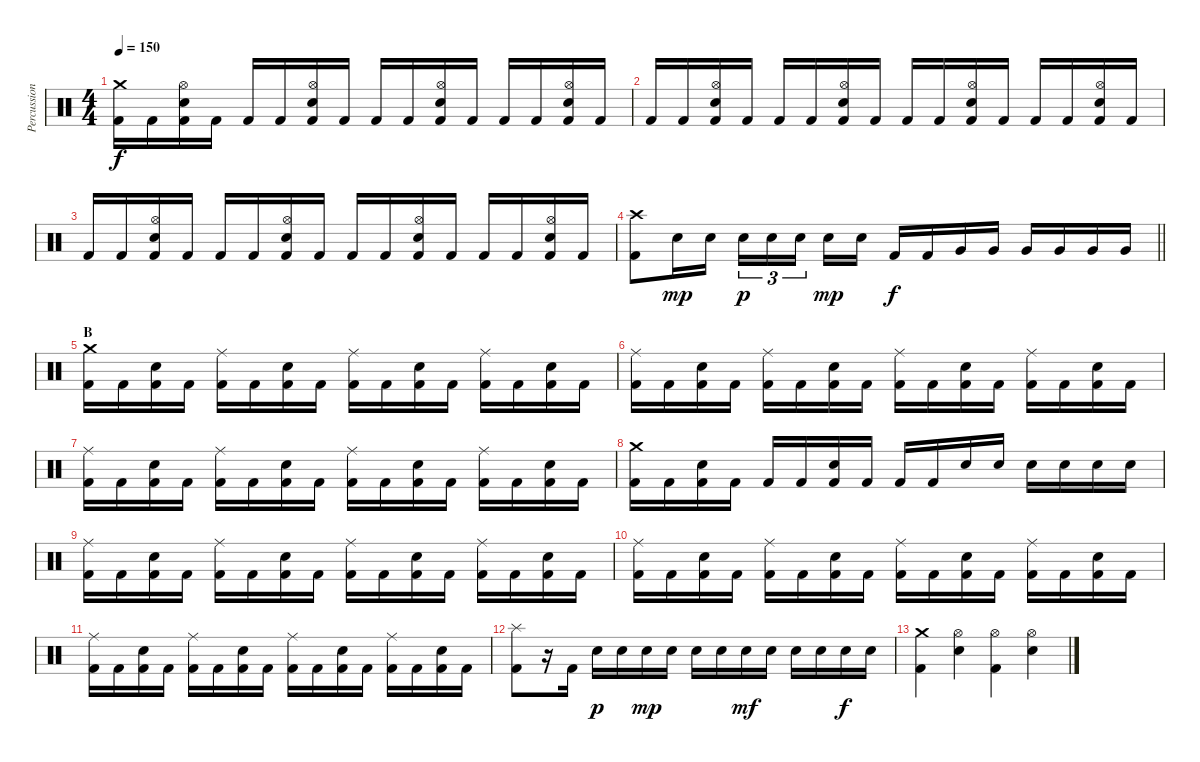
\track ("Percussion" "Percussion") {instrument percussion bank 6}
\staff {score}
\articulation defaults
\ts (4 4)
\tempo 150
\clef neutral
\ks c
("Crash medium (hit)" "Kick (hit) 2").16{dy f} "Kick (hit) 2".16 ("Hi-Hat (open)" "Electric Snare (hit)" "Kick (hit) 2").16 "Kick (hit) 2".16 "Kick (hit) 2".16 "Kick (hit) 2".16 ("Hi-Hat (open)" "Electric Snare (hit)" "Kick (hit) 2").16 "Kick (hit) 2".16 "Kick (hit) 2".16 "Kick (hit) 2".16 ("Hi-Hat (open)" "Electric Snare (hit)" "Kick (hit) 2").16 "Kick (hit) 2".16 "Kick (hit) 2".16 "Kick (hit) 2".16 ("Hi-Hat (open)" "Electric Snare (hit)" "Kick (hit) 2").16 "Kick (hit) 2".16 |
"Kick (hit) 2".16 "Kick (hit) 2".16 ("Hi-Hat (open)" "Electric Snare (hit)" "Kick (hit) 2").16 "Kick (hit) 2".16 "Kick (hit) 2".16 "Kick (hit) 2".16 ("Hi-Hat (open)" "Electric Snare (hit)" "Kick (hit) 2").16 "Kick (hit) 2".16 "Kick (hit) 2".16 "Kick (hit) 2".16 ("Hi-Hat (open)" "Electric Snare (hit)" "Kick (hit) 2").16 "Kick (hit) 2".16 "Kick (hit) 2".16 "Kick (hit) 2".16 ("Hi-Hat (open)" "Electric Snare (hit)" "Kick (hit) 2").16 "Kick (hit) 2".16 |
"Kick (hit) 2".16 "Kick (hit) 2".16 ("Hi-Hat (open)" "Electric Snare (hit)" "Kick (hit) 2").16 "Kick (hit) 2".16 "Kick (hit) 2".16 "Kick (hit) 2".16 ("Hi-Hat (open)" "Electric Snare (hit)" "Kick (hit) 2").16 "Kick (hit) 2".16 "Kick (hit) 2".16 "Kick (hit) 2".16 ("Hi-Hat (open)" "Electric Snare (hit)" "Kick (hit) 2").16 "Kick (hit) 2".16 "Kick (hit) 2".16 "Kick (hit) 2".16 ("Hi-Hat (open)" "Electric Snare (hit)" "Kick (hit) 2").16 "Kick (hit) 2".16 |
\barLineRight lightlight
("Crash high (hit)" "Kick (hit) 2").8 "Electric Snare (hit)".16{dy mp} "Electric Snare (hit)".16 "Electric Snare (hit)".16{tu (3 2) dy p} "Electric Snare (hit)".16{tu (3 2)} "Electric Snare (hit)".16{tu (3 2) beam splitsecondary} "Electric Snare (hit)".16{dy mp} "Electric Snare (hit)".16 "Kick (hit) 2".16{dy f} "Kick (hit) 2".16 "Very Low Tom (hit)".16 "Very Low Tom (hit)".16 "Very Low Tom (hit)".16 "Very Low Tom (hit)".16 "Very Low Tom (hit)".16 "Very Low Tom (hit)".16 |
\section ("" "B")
("Crash medium (hit)" "Kick (hit) 2").16 "Kick (hit) 2".16 ("Electric Snare (hit)" "Kick (hit) 2").16 "Kick (hit) 2".16 ("Ride (middle)" "Kick (hit) 2").16 "Kick (hit) 2".16 ("Electric Snare (hit)" "Kick (hit) 2").16 "Kick (hit) 2".16 ("Ride (middle)" "Kick (hit) 2").16 "Kick (hit) 2".16 ("Electric Snare (hit)" "Kick (hit) 2").16 "Kick (hit) 2".16 ("Ride (middle)" "Kick (hit) 2").16 "Kick (hit) 2".16 ("Electric Snare (hit)" "Kick (hit) 2").16 "Kick (hit) 2".16 |
("Ride (middle)" "Kick (hit) 2").16 "Kick (hit) 2".16 ("Electric Snare (hit)" "Kick (hit) 2").16 "Kick (hit) 2".16 ("Ride (middle)" "Kick (hit) 2").16 "Kick (hit) 2".16 ("Electric Snare (hit)" "Kick (hit) 2").16 "Kick (hit) 2".16 ("Ride (middle)" "Kick (hit) 2").16 "Kick (hit) 2".16 ("Electric Snare (hit)" "Kick (hit) 2").16 "Kick (hit) 2".16 ("Ride (middle)" "Kick (hit) 2").16 "Kick (hit) 2".16 ("Electric Snare (hit)" "Kick (hit) 2").16 "Kick (hit) 2".16 |
("Ride (middle)" "Kick (hit) 2").16 "Kick (hit) 2".16 ("Electric Snare (hit)" "Kick (hit) 2").16 "Kick (hit) 2".16 ("Ride (middle)" "Kick (hit) 2").16 "Kick (hit) 2".16 ("Electric Snare (hit)" "Kick (hit) 2").16 "Kick (hit) 2".16 ("Ride (middle)" "Kick (hit) 2").16 "Kick (hit) 2".16 ("Electric Snare (hit)" "Kick (hit) 2").16 "Kick (hit) 2".16 ("Ride (middle)" "Kick (hit) 2").16 "Kick (hit) 2".16 ("Electric Snare (hit)" "Kick (hit) 2").16 "Kick (hit) 2".16 |
("Crash medium (hit)" "Kick (hit) 2").16 "Kick (hit) 2".16 ("Electric Snare (hit)" "Kick (hit) 2").16 "Kick (hit) 2".16 "Kick (hit) 2".16 "Kick (hit) 2".16 ("Electric Snare (hit)" "Kick (hit) 2").16 "Kick (hit) 2".16 "Kick (hit) 2".16 "Kick (hit) 2".16 "Electric Snare (hit)".16 "Electric Snare (hit)".16 "Electric Snare (hit)".16 "Electric Snare (hit)".16 "Electric Snare (hit)".16 "Electric Snare (hit)".16 |
("Ride (middle)" "Kick (hit) 2").16 "Kick (hit) 2".16 ("Electric Snare (hit)" "Kick (hit) 2").16 "Kick (hit) 2".16 ("Ride (middle)" "Kick (hit) 2").16 "Kick (hit) 2".16 ("Electric Snare (hit)" "Kick (hit) 2").16 "Kick (hit) 2".16 ("Ride (middle)" "Kick (hit) 2").16 "Kick (hit) 2".16 ("Electric Snare (hit)" "Kick (hit) 2").16 "Kick (hit) 2".16 ("Ride (middle)" "Kick (hit) 2").16 "Kick (hit) 2".16 ("Electric Snare (hit)" "Kick (hit) 2").16 "Kick (hit) 2".16 |
("Ride (middle)" "Kick (hit) 2").16 "Kick (hit) 2".16 ("Electric Snare (hit)" "Kick (hit) 2").16 "Kick (hit) 2".16 ("Ride (middle)" "Kick (hit) 2").16 "Kick (hit) 2".16 ("Electric Snare (hit)" "Kick (hit) 2").16 "Kick (hit) 2".16 ("Ride (middle)" "Kick (hit) 2").16 "Kick (hit) 2".16 ("Electric Snare (hit)" "Kick (hit) 2").16 "Kick (hit) 2".16 ("Ride (middle)" "Kick (hit) 2").16 "Kick (hit) 2".16 ("Electric Snare (hit)" "Kick (hit) 2").16 "Kick (hit) 2".16 |
("Ride (middle)" "Kick (hit) 2").16 "Kick (hit) 2".16 ("Electric Snare (hit)" "Kick (hit) 2").16 "Kick (hit) 2".16 ("Ride (middle)" "Kick (hit) 2").16 "Kick (hit) 2".16 ("Electric Snare (hit)" "Kick (hit) 2").16 "Kick (hit) 2".16 ("Ride (middle)" "Kick (hit) 2").16 "Kick (hit) 2".16 ("Electric Snare (hit)" "Kick (hit) 2").16 "Kick (hit) 2".16 ("Ride (middle)" "Kick (hit) 2").16 "Kick (hit) 2".16 ("Electric Snare (hit)" "Kick (hit) 2").16 "Kick (hit) 2".16 |
("Splash (hit)" "Kick (hit) 2").8 r.16 "Kick (hit) 2".16 "Electric Snare (hit)".16{dy p} "Electric Snare (hit)".16 "Electric Snare (hit)".16{dy mp} "Electric Snare (hit)".16 "Electric Snare (hit)".16 "Electric Snare (hit)".16 "Electric Snare (hit)".16{dy mf} "Electric Snare (hit)".16 "Electric Snare (hit)".16 "Electric Snare (hit)".16 "Electric Snare (hit)".16{dy f} "Electric Snare (hit)".16 |
("Crash medium (hit)" "Kick (hit) 2").4 ("Hi-Hat (open)" "Electric Snare (hit)").4 ("Hi-Hat (open)" "Kick (hit) 2").4 ("Hi-Hat (open)" "Electric Snare (hit)").4
